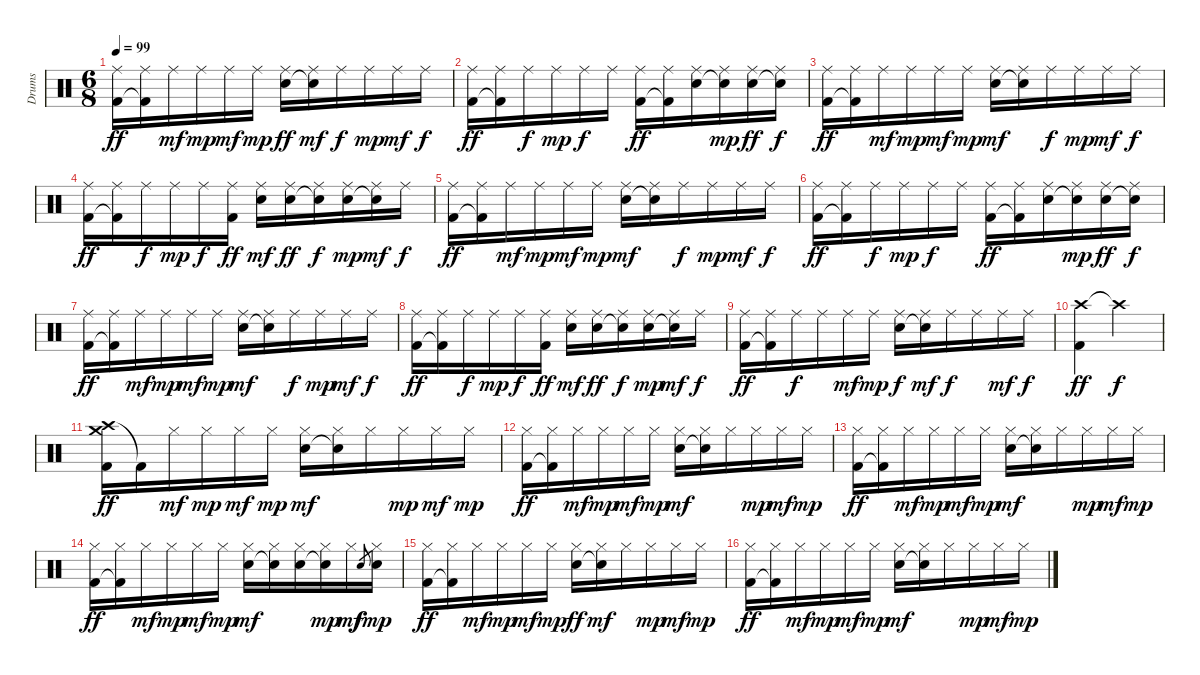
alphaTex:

\track ("Drums" "Drums") {instrument percussion}
\staff {score}
\articulation defaults
\ts (6 8)
\tempo 99
\clef neutral
\ks c
("Ride (middle)" "Kick (hit) 2").16{dy ff} ("Ride (middle)" "Kick (hit) 2"{t}).16 "Ride (middle)".16{dy mf} "Ride (middle)".16{dy mp} "Ride (middle)".16{dy mf} "Ride (middle)".16{dy mp} ("Ride (middle)" "Electric Snare (hit)").16{dy ff} ("Ride (middle)" "Snare (hit) 2"{t}).16{dy mf} "Ride (middle)".16{dy f} "Ride (middle)".16{dy mp} "Ride (middle)".16{dy mf} "Ride (middle)".16{dy f} |
("Ride (middle)" "Kick (hit) 2").16{dy ff} ("Ride (middle)" "Kick (hit) 2"{t}).16 "Ride (middle)".16{dy f} "Ride (middle)".16{dy mp} "Ride (middle)".16{dy f} "Ride (middle)".16 ("Ride (middle)" "Kick (hit) 2").16{dy ff} ("Ride (middle)" "Kick (hit) 2"{t}).16 ("Ride (middle)" "Electric Snare (hit)").16 ("Ride (middle)" "Snare (hit) 2"{t}).16{dy mp} ("Ride (middle)" "Electric Snare (hit)").16{dy ff} ("Ride (middle)" "Electric Snare (hit)"{t}).16{dy f} |
("Ride (middle)" "Kick (hit) 2").16{dy ff} ("Ride (middle)" "Kick (hit) 2"{t}).16 "Ride (middle)".16{dy mf} "Ride (middle)".16{dy mp} "Ride (middle)".16{dy mf} "Ride (middle)".16{dy mp} ("Ride (middle)" "Snare (hit) 2").16{dy mf} ("Ride (middle)" "Snare (hit) 2"{t}).16 "Ride (middle)".16{dy f} "Ride (middle)".16{dy mp} "Ride (middle)".16{dy mf} "Ride (middle)".16{dy f} |
("Ride (middle)" "Kick (hit) 2").16{dy ff} ("Ride (middle)" "Kick (hit) 2"{t}).16 "Ride (middle)".16{dy f} "Ride (middle)".16{dy mp} "Ride (middle)".16{dy f} ("Ride (middle)" "Kick (hit) 2").16{dy ff} ("Ride (middle)" "Electric Snare (hit)").16{dy mf} ("Ride (middle)" "Electric Snare (hit)").16{dy ff} ("Ride (middle)" "Electric Snare (hit)"{t}).16{dy f} ("Ride (middle)" "Electric Snare (hit)").16{dy mp} ("Ride (middle)" "Electric Snare (hit)"{t}).16{dy mf} "Ride (middle)".16{dy f} |
("Ride (middle)" "Kick (hit) 2").16{dy ff} ("Ride (middle)" "Kick (hit) 2"{t}).16 "Ride (middle)".16{dy mf} "Ride (middle)".16{dy mp} "Ride (middle)".16{dy mf} "Ride (middle)".16{dy mp} ("Ride (middle)" "Snare (hit) 2").16{dy mf} ("Ride (middle)" "Snare (hit) 2"{t}).16 "Ride (middle)".16{dy f} "Ride (middle)".16{dy mp} "Ride (middle)".16{dy mf} "Ride (middle)".16{dy f} |
("Ride (middle)" "Kick (hit) 2").16{dy ff} ("Ride (middle)" "Kick (hit) 2"{t}).16 "Ride (middle)".16{dy f} "Ride (middle)".16{dy mp} "Ride (middle)".16{dy f} "Ride (middle)".16 ("Ride (middle)" "Kick (hit) 2").16{dy ff} ("Ride (middle)" "Kick (hit) 2"{t}).16 ("Ride (middle)" "Electric Snare (hit)").16 ("Ride (middle)" "Snare (hit) 2"{t}).16{dy mp} ("Ride (middle)" "Electric Snare (hit)").16{dy ff} ("Ride (middle)" "Electric Snare (hit)"{t}).16{dy f} |
("Ride (middle)" "Kick (hit) 2").16{dy ff} ("Ride (middle)" "Kick (hit) 2"{t}).16 "Ride (middle)".16{dy mf} "Ride (middle)".16{dy mp} "Ride (middle)".16{dy mf} "Ride (middle)".16{dy mp} ("Ride (middle)" "Snare (hit) 2").16{dy mf} ("Ride (middle)" "Snare (hit) 2"{t}).16 "Ride (middle)".16{dy f} "Ride (middle)".16{dy mp} "Ride (middle)".16{dy mf} "Ride (middle)".16{dy f} |
("Ride (middle)" "Kick (hit) 2").16{dy ff} ("Ride (middle)" "Kick (hit) 2"{t}).16 "Ride (middle)".16{dy f} "Ride (middle)".16{dy mp} "Ride (middle)".16{dy f} ("Ride (middle)" "Kick (hit) 2").16{dy ff} ("Ride (middle)" "Electric Snare (hit)").16{dy mf} ("Ride (middle)" "Electric Snare (hit)").16{dy ff} ("Ride (middle)" "Electric Snare (hit)"{t}).16{dy f} ("Ride (middle)" "Electric Snare (hit)").16{dy mp} ("Ride (middle)" "Electric Snare (hit)"{t}).16{dy mf} "Ride (middle)".16{dy f} |
("Ride (middle)" "Kick (hit) 2").16{dy ff} ("Ride (middle)" "Kick (hit) 2"{t}).16 "Ride (middle)".16{dy f} "Ride (middle)".16 "Ride (middle)".16{dy mf} "Ride (middle)".16{dy mp} ("Ride (middle)" "Snare (hit) 2").16{dy f} ("Ride (middle)" "Snare (hit) 2"{t}).16{dy mf} "Ride (middle)".16{dy f} "Ride (middle)".16 "Ride (middle)".16{dy mf} "Ride (middle)".16{dy f} |
("Crash high (hit)" "Kick (hit) 2").4{dy ff} "Crash high (hit)"{t}.2{dy f} |
("Crash high (hit)" "Crash medium (hit)" "Kick (hit) 2").16{dy ff} "Kick (hit) 2"{t}.16 "Hi-Hat (closed)".16{dy mf} "Hi-Hat (closed)".16{dy mp} "Hi-Hat (closed)".16{dy mf} "Hi-Hat (closed)".16{dy mp} ("Hi-Hat (closed)" "Snare (hit) 2").16{dy mf} ("Hi-Hat (closed)" "Snare (hit) 2"{t}).16 "Hi-Hat (closed)".16 "Hi-Hat (closed)".16{dy mp} "Hi-Hat (closed)".16{dy mf} "Hi-Hat (closed)".16{dy mp} |
("Hi-Hat (closed)" "Kick (hit) 2").16{dy ff} ("Hi-Hat (closed)" "Kick (hit) 2"{t}).16 "Hi-Hat (closed)".16{dy mf} "Hi-Hat (closed)".16{dy mp} "Hi-Hat (closed)".16{dy mf} "Hi-Hat (closed)".16{dy mp} ("Hi-Hat (closed)" "Snare (hit) 2").16{dy mf} ("Hi-Hat (closed)" "Snare (hit) 2"{t}).16 "Hi-Hat (closed)".16 "Hi-Hat (closed)".16{dy mp} "Hi-Hat (closed)".16{dy mf} "Hi-Hat (closed)".16{dy mp} |
("Hi-Hat (closed)" "Kick (hit) 2").16{dy ff} ("Hi-Hat (closed)" "Kick (hit) 2"{t}).16 "Hi-Hat (closed)".16{dy mf} "Hi-Hat (closed)".16{dy mp} "Hi-Hat (closed)".16{dy mf} "Hi-Hat (closed)".16{dy mp} ("Hi-Hat (closed)" "Snare (hit) 2").16{dy mf} ("Hi-Hat (closed)" "Snare (hit) 2"{t}).16 "Hi-Hat (closed)".16 "Hi-Hat (closed)".16{dy mp} "Hi-Hat (closed)".16{dy mf} "Hi-Hat (closed)".16{dy mp} |
("Hi-Hat (closed)" "Kick (hit) 2").16{dy ff} ("Hi-Hat (closed)" "Kick (hit) 2"{t}).16 "Hi-Hat (closed)".16{dy mf} "Hi-Hat (closed)".16{dy mp} "Hi-Hat (closed)".16{dy mf} "Hi-Hat (closed)".16{dy mp} ("Hi-Hat (closed)" "Snare (hit) 2").16{dy mf} ("Hi-Hat (closed)" "Snare (hit) 2"{t}).16 ("Hi-Hat (closed)" "Snare (hit) 2").16 ("Hi-Hat (closed)" "Snare (hit) 2"{t}).16{dy mp} "Hi-Hat (closed)".16{dy mf} "Electric Snare (hit)".8{gr dy f} ("Hi-Hat (closed)" "Electric Snare (hit)").16{dy mp} |
("Hi-Hat (closed)" "Kick (hit) 2").16{dy ff} ("Hi-Hat (closed)" "Kick (hit) 2"{t}).16 "Hi-Hat (closed)".16{dy mf} "Hi-Hat (closed)".16{dy mp} "Hi-Hat (closed)".16{dy mf} "Hi-Hat (closed)".16{dy mp} ("Hi-Hat (closed)" "Electric Snare (hit)").16{dy ff} ("Hi-Hat (closed)" "Snare (hit) 2"{t}).16{dy mf} "Hi-Hat (closed)".16 "Hi-Hat (closed)".16{dy mp} "Hi-Hat (closed)".16{dy mf} "Hi-Hat (closed)".16{dy mp} |
("Hi-Hat (closed)" "Kick (hit) 2").16{dy ff} ("Hi-Hat (closed)" "Kick (hit) 2"{t}).16 "Hi-Hat (closed)".16{dy mf} "Hi-Hat (closed)".16{dy mp} "Hi-Hat (closed)".16{dy mf} "Hi-Hat (closed)".16{dy mp} ("Hi-Hat (closed)" "Snare (hit) 2").16{dy mf} ("Hi-Hat (closed)" "Snare (hit) 2"{t}).16 "Hi-Hat (closed)".16 "Hi-Hat (closed)".16{dy mp} "Hi-Hat (closed)".16{dy mf} "Hi-Hat (closed)".16{dy mp}
